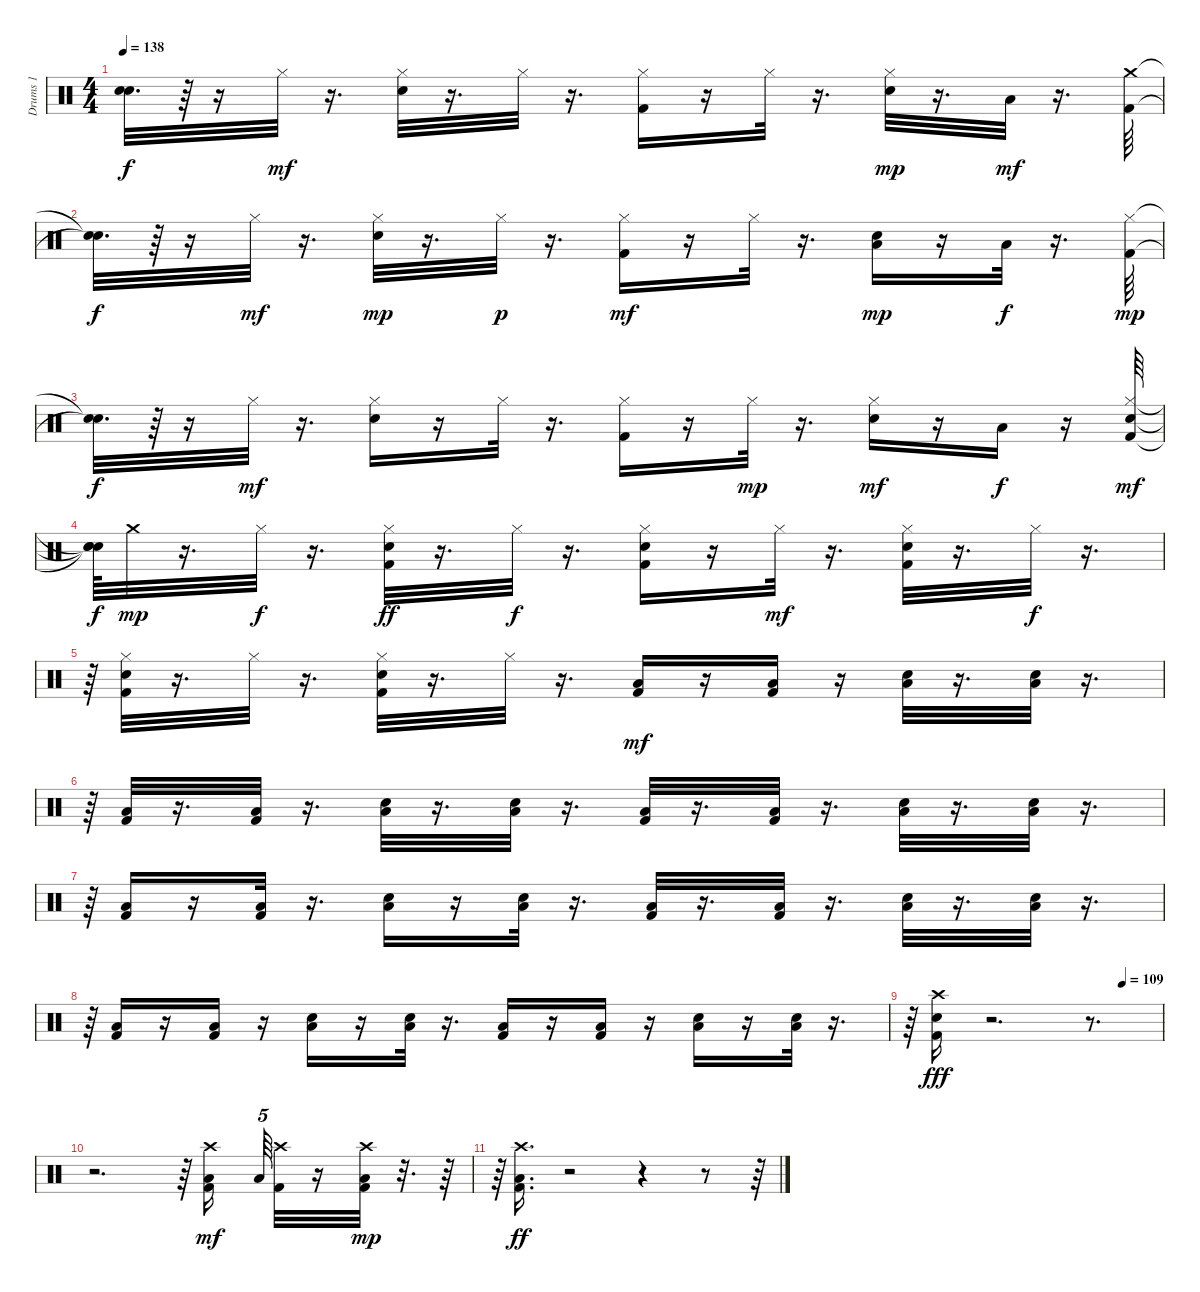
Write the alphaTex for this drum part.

\track ("Drums 1" "Drums 1") {instrument percussion}
\staff {score}
\articulation defaults
\ts (4 4)
\tempo 138
\clef neutral
\ks c
("Snare (hit)"{t} "Snare (hit)"{t}).32{d dy f} r.64 r.16 "Hi-Hat (closed)".32{dy mf} r.16{d} ("Snare (hit) 2" "Hi-Hat (closed)").32 r.16{d} "Hi-Hat (closed)".32 r.16{d} ("Kick (hit) 2" "Hi-Hat (closed)").16 r.16 "Hi-Hat (closed)".32 r.16{d} ("Hi-Hat (closed)" "Snare (hit) 2").32{dy mp} r.16{d} "Low Floor Tom (hit)".32{dy mf} r.16{d} ("Crash medium (hit)" "Kick (hit) 2").64 |
("Snare (hit)"{t} "Snare (hit)"{t}).32{d dy f} r.64 r.16 "Hi-Hat (closed)".32{dy mf} r.16{d} ("Snare (hit) 2" "Hi-Hat (closed)").32{dy mp} r.16{d} "Hi-Hat (closed)".32{dy p} r.16{d} ("Kick (hit) 2" "Hi-Hat (closed)").16{dy mf} r.16 "Hi-Hat (closed)".32 r.16{d} ("Snare (hit) 2" "Low Tom (hit)").16{dy mp} r.16 "Low Floor Tom (hit)".32{dy f} r.16{d} ("Kick (hit) 2" "Hi-Hat (closed)").64{dy mp} |
("Snare (hit)"{t} "Snare (hit)"{t}).32{d dy f} r.64 r.16 "Hi-Hat (closed)".32{dy mf} r.16{d} ("Snare (hit) 2" "Hi-Hat (closed)").16 r.16 "Hi-Hat (closed)".32 r.16{d} ("Kick (hit) 2" "Hi-Hat (closed)").16 r.16 "Hi-Hat (closed)".32{dy mp} r.16{d} ("Snare (hit) 2" "Hi-Hat (closed)").16{dy mf} r.16 "Low Floor Tom (hit)".16{dy f} r.16 ("Kick (hit) 2" "Snare (hit) 2" "Hi-Hat (closed)").64{dy mf} |
("Snare (hit)"{t} "Snare (hit)"{t} "Snare (hit)"{t}).64{dy f} "Crash medium (hit)".32{dy mp} r.16{d} "Hi-Hat (closed)".32{dy f} r.16{d} ("Kick (hit) 2" "Snare (hit) 2" "Hi-Hat (closed)").32{dy ff} r.16{d} "Hi-Hat (closed)".32{dy f} r.16{d} ("Hi-Hat (closed)" "Kick (hit) 2" "Snare (hit) 2").16 r.16 "Hi-Hat (closed)".32{dy mf} r.16{d} ("Hi-Hat (closed)" "Snare (hit) 2" "Kick (hit) 2").32 r.16{d} "Hi-Hat (closed)".32{dy f} r.16{d} |
r.64 ("Kick (hit) 2" "Hi-Hat (closed)" "Snare (hit) 2").32 r.16{d} "Hi-Hat (closed)".32 r.16{d} ("Snare (hit) 2" "Kick (hit) 2" "Hi-Hat (closed)").32 r.16{d} "Hi-Hat (closed)".32 r.16{d} ("Kick (hit) 2" "Low Floor Tom (hit)").16{dy mf} r.16 ("Low Floor Tom (hit)" "Kick (hit) 2").16 r.16 ("Low Floor Tom (hit)" "Snare (hit) 2").32 r.16{d} ("Low Floor Tom (hit)" "Snare (hit) 2").32 r.16{d} |
r.64 ("Low Floor Tom (hit)" "Kick (hit) 2").32 r.16{d} ("Kick (hit) 2" "Low Floor Tom (hit)").32 r.16{d} ("Low Floor Tom (hit)" "Snare (hit) 2").32 r.16{d} ("Snare (hit) 2" "Low Floor Tom (hit)").32 r.16{d} ("Kick (hit) 2" "Low Floor Tom (hit)").32 r.16{d} ("Kick (hit) 2" "Low Floor Tom (hit)").32 r.16{d} ("Snare (hit) 2" "Low Floor Tom (hit)").32 r.16{d} ("Low Floor Tom (hit)" "Snare (hit) 2").32 r.16{d} |
r.64 ("Kick (hit) 2" "Low Floor Tom (hit)").16 r.16 ("Kick (hit) 2" "Low Floor Tom (hit)").32 r.16{d} ("Low Floor Tom (hit)" "Snare (hit) 2").16 r.16 ("Snare (hit) 2" "Low Floor Tom (hit)").32 r.16{d} ("Kick (hit) 2" "Low Floor Tom (hit)").32 r.16{d} ("Kick (hit) 2" "Low Floor Tom (hit)").32 r.16{d} ("Snare (hit) 2" "Low Floor Tom (hit)").32 r.16{d} ("Snare (hit) 2" "Low Floor Tom (hit)").32 r.16{d} |
r.64 ("Kick (hit) 2" "Low Floor Tom (hit)").16 r.16 ("Kick (hit) 2" "Low Floor Tom (hit)").16 r.16 ("Low Floor Tom (hit)" "Snare (hit) 2").16 r.16 ("Low Floor Tom (hit)" "Snare (hit) 2").32 r.16{d} ("Kick (hit) 2" "Low Floor Tom (hit)").16 r.16 ("Kick (hit) 2" "Low Floor Tom (hit)").16 r.16 ("Low Floor Tom (hit)" "Snare (hit) 2").16 r.16 ("Low Floor Tom (hit)" "Snare (hit) 2").32 r.16{d} |
\tempo (109 0.84375)
r.64 ("Snare (hit) 2" "Kick (hit) 2" "Crash high (hit)").16{dy fff} r.2{d} r.8{d} |
r.2{d} r.64 ("Crash high (hit)" "Low Tom (hit)" "Kick (hit) 2").16{dy mf} "Low Tom (hit)".64{tu (5 4)} ("Crash high (hit)" "Kick (hit) 2").32 r.16 ("Kick (hit) 2" "Low Tom (hit)" "Crash high (hit)").32{dy mp} r.32{d} r.64 |
r.64 ("Low Tom (hit)" "Crash high (hit)" "Kick (hit) 2").16{d dy ff} r.2 r.4 r.8 r.64
